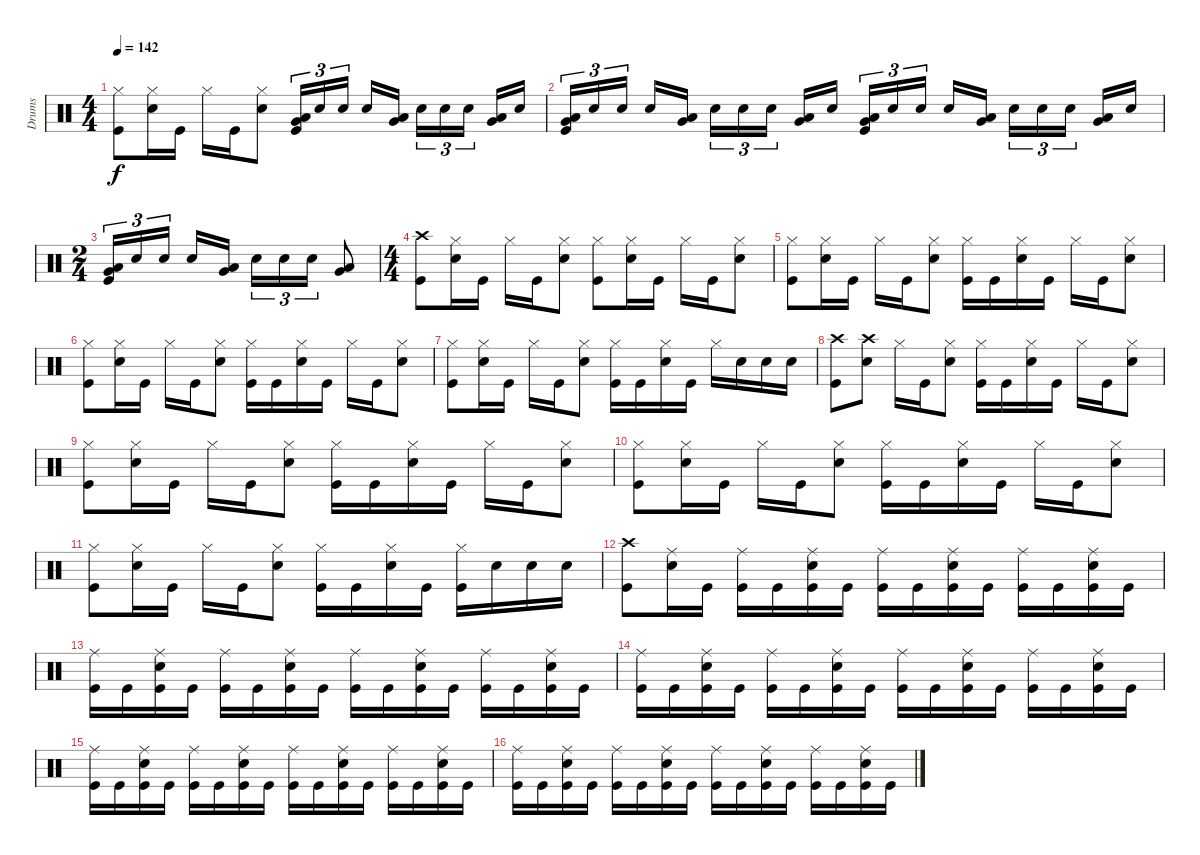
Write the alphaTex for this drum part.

\track ("Drums" "Drums") {instrument percussion}
\staff {score}
\articulation defaults
\ts (4 4)
\tempo 142
\clef neutral
\ks c
("Hi-Hat (closed)" "Kick (hit)").8{dy f} ("Snare (hit) 2" "Hi-Hat (closed)").16 "Kick (hit)".16 "Hi-Hat (closed)".16 "Kick (hit)".16 ("Snare (hit) 2" "Hi-Hat (closed)").8 ("Low Tom (hit)" "Very Low Tom (hit)" "Kick (hit)").16{tu (3 2)} "Snare (hit) 2".16{tu (3 2)} "Snare (hit) 2".16{tu (3 2)} "Snare (hit) 2".16 ("Low Tom (hit)" "Very Low Tom (hit)").16 "Snare (hit) 2".16{tu (3 2)} "Snare (hit) 2".16{tu (3 2)} "Snare (hit) 2".16{tu (3 2)} ("Low Tom (hit)" "Very Low Tom (hit)").16 "Snare (hit) 2".16 |
("Low Tom (hit)" "Very Low Tom (hit)" "Kick (hit)").16{tu (3 2)} "Snare (hit) 2".16{tu (3 2)} "Snare (hit) 2".16{tu (3 2)} "Snare (hit) 2".16 ("Low Tom (hit)" "Very Low Tom (hit)").16 "Snare (hit) 2".16{tu (3 2)} "Snare (hit) 2".16{tu (3 2)} "Snare (hit) 2".16{tu (3 2)} ("Low Tom (hit)" "Very Low Tom (hit)").16 "Snare (hit) 2".16 ("Low Tom (hit)" "Very Low Tom (hit)" "Kick (hit)").16{tu (3 2)} "Snare (hit) 2".16{tu (3 2)} "Snare (hit) 2".16{tu (3 2)} "Snare (hit) 2".16 ("Low Tom (hit)" "Very Low Tom (hit)").16 "Snare (hit) 2".16{tu (3 2)} "Snare (hit) 2".16{tu (3 2)} "Snare (hit) 2".16{tu (3 2)} ("Low Tom (hit)" "Very Low Tom (hit)").16 "Snare (hit) 2".16 |
\ts (2 4)
("Low Tom (hit)" "Very Low Tom (hit)" "Kick (hit)").16{tu (3 2)} "Snare (hit) 2".16{tu (3 2)} "Snare (hit) 2".16{tu (3 2)} "Snare (hit) 2".16 ("Low Tom (hit)" "Very Low Tom (hit)").16 "Snare (hit) 2".16{tu (3 2)} "Snare (hit) 2".16{tu (3 2)} "Snare (hit) 2".16{tu (3 2)} ("Low Tom (hit)" "Very Low Tom (hit)").8 |
\ts (4 4)
("Crash high (hit)" "Kick (hit)").8 ("Snare (hit) 2" "Hi-Hat (closed)").16 "Kick (hit)".16 "Hi-Hat (closed)".16 "Kick (hit)".16 ("Hi-Hat (closed)" "Snare (hit) 2").8 ("Hi-Hat (closed)" "Kick (hit)").8 ("Snare (hit) 2" "Hi-Hat (closed)").16 "Kick (hit)".16 "Hi-Hat (closed)".16 "Kick (hit)".16 ("Hi-Hat (closed)" "Snare (hit) 2").8 |
("Hi-Hat (closed)" "Kick (hit)").8 ("Snare (hit) 2" "Hi-Hat (closed)").16 "Kick (hit)".16 "Hi-Hat (closed)".16 "Kick (hit)".16 ("Snare (hit) 2" "Hi-Hat (closed)").8 ("Hi-Hat (closed)" "Kick (hit)").16 "Kick (hit)".16 ("Snare (hit) 2" "Hi-Hat (closed)").16 "Kick (hit)".16 "Hi-Hat (closed)".16 "Kick (hit)".16 ("Snare (hit) 2" "Hi-Hat (closed)").8 |
("Hi-Hat (closed)" "Kick (hit)").8 ("Snare (hit) 2" "Hi-Hat (closed)").16 "Kick (hit)".16 "Hi-Hat (closed)".16 "Kick (hit)".16 ("Hi-Hat (closed)" "Snare (hit) 2").8 ("Hi-Hat (closed)" "Kick (hit)").16 "Kick (hit)".16 ("Snare (hit) 2" "Hi-Hat (closed)").16 "Kick (hit)".16 "Hi-Hat (closed)".16 "Kick (hit)".16 ("Hi-Hat (closed)" "Snare (hit) 2").8 |
("Hi-Hat (closed)" "Kick (hit)").8 ("Snare (hit) 2" "Hi-Hat (closed)").16 "Kick (hit)".16 "Hi-Hat (closed)".16 "Kick (hit)".16 ("Hi-Hat (closed)" "Snare (hit) 2").8 ("Hi-Hat (closed)" "Kick (hit)").16 "Kick (hit)".16 ("Snare (hit) 2" "Hi-Hat (closed)").16 "Kick (hit)".16 "Hi-Hat (closed)".16 "Snare (hit) 2".16 "Snare (hit) 2".16 "Snare (hit) 2".16 |
("Crash high (hit)" "Kick (hit)").8 ("Crash high (hit)" "Snare (hit) 2").8 "Hi-Hat (closed)".16 "Kick (hit)".16 ("Hi-Hat (closed)" "Snare (hit) 2").8 ("Hi-Hat (closed)" "Kick (hit)").16 "Kick (hit)".16 ("Snare (hit) 2" "Hi-Hat (closed)").16 "Kick (hit)".16 "Hi-Hat (closed)".16 "Kick (hit)".16 ("Hi-Hat (closed)" "Snare (hit) 2").8 |
("Hi-Hat (closed)" "Kick (hit)").8 ("Snare (hit) 2" "Hi-Hat (closed)").16 "Kick (hit)".16 "Hi-Hat (closed)".16 "Kick (hit)".16 ("Hi-Hat (closed)" "Snare (hit) 2").8 ("Hi-Hat (closed)" "Kick (hit)").16 "Kick (hit)".16 ("Snare (hit) 2" "Hi-Hat (closed)").16 "Kick (hit)".16 "Hi-Hat (closed)".16 "Kick (hit)".16 ("Hi-Hat (closed)" "Snare (hit) 2").8 |
("Hi-Hat (closed)" "Kick (hit)").8 ("Snare (hit) 2" "Hi-Hat (closed)").16 "Kick (hit)".16 "Hi-Hat (closed)".16 "Kick (hit)".16 ("Hi-Hat (closed)" "Snare (hit) 2").8 ("Hi-Hat (closed)" "Kick (hit)").16 "Kick (hit)".16 ("Snare (hit) 2" "Hi-Hat (closed)").16 "Kick (hit)".16 "Hi-Hat (closed)".16 "Kick (hit)".16 ("Hi-Hat (closed)" "Snare (hit) 2").8 |
("Hi-Hat (closed)" "Kick (hit)").8 ("Snare (hit) 2" "Hi-Hat (closed)").16 "Kick (hit)".16 "Hi-Hat (closed)".16 "Kick (hit)".16 ("Hi-Hat (closed)" "Snare (hit) 2").8 ("Hi-Hat (closed)" "Kick (hit)").16 "Kick (hit)".16 ("Snare (hit) 2" "Hi-Hat (closed)").16 "Kick (hit)".16 ("Kick (hit)" "Hi-Hat (closed)").16 "Snare (hit) 2".16 "Snare (hit) 2".16 "Snare (hit) 2".16 |
("Crash high (hit)" "Kick (hit)").8 ("Ride (middle)" "Snare (hit) 2").16 "Kick (hit)".16 ("Ride (middle)" "Kick (hit)").16 "Kick (hit)".16 ("Ride (middle)" "Snare (hit) 2" "Kick (hit)").16 "Kick (hit)".16 ("Ride (middle)" "Kick (hit)").16 "Kick (hit)".16 ("Snare (hit) 2" "Ride (middle)" "Kick (hit)").16 "Kick (hit)".16 ("Ride (middle)" "Kick (hit)").16 "Kick (hit)".16 ("Snare (hit) 2" "Ride (middle)" "Kick (hit)").16 "Kick (hit)".16 |
("Ride (middle)" "Kick (hit)").16 "Kick (hit)".16 ("Snare (hit) 2" "Ride (middle)" "Kick (hit)").16 "Kick (hit)".16 ("Ride (middle)" "Kick (hit)").16 "Kick (hit)".16 ("Snare (hit) 2" "Ride (middle)" "Kick (hit)").16 "Kick (hit)".16 ("Ride (middle)" "Kick (hit)").16 "Kick (hit)".16 ("Snare (hit) 2" "Ride (middle)" "Kick (hit)").16 "Kick (hit)".16 ("Ride (middle)" "Kick (hit)").16 "Kick (hit)".16 ("Snare (hit) 2" "Ride (middle)" "Kick (hit)").16 "Kick (hit)".16 |
("Ride (middle)" "Kick (hit)").16 "Kick (hit)".16 ("Snare (hit) 2" "Ride (middle)" "Kick (hit)").16 "Kick (hit)".16 ("Ride (middle)" "Kick (hit)").16 "Kick (hit)".16 ("Snare (hit) 2" "Ride (middle)" "Kick (hit)").16 "Kick (hit)".16 ("Ride (middle)" "Kick (hit)").16 "Kick (hit)".16 ("Snare (hit) 2" "Ride (middle)" "Kick (hit)").16 "Kick (hit)".16 ("Ride (middle)" "Kick (hit)").16 "Kick (hit)".16 ("Snare (hit) 2" "Ride (middle)" "Kick (hit)").16 "Kick (hit)".16 |
("Ride (middle)" "Kick (hit)").16 "Kick (hit)".16 ("Snare (hit) 2" "Ride (middle)" "Kick (hit)").16 "Kick (hit)".16 ("Ride (middle)" "Kick (hit)").16 "Kick (hit)".16 ("Snare (hit) 2" "Ride (middle)" "Kick (hit)").16 "Kick (hit)".16 ("Ride (middle)" "Kick (hit)").16 "Kick (hit)".16 ("Snare (hit) 2" "Ride (middle)" "Kick (hit)").16 "Kick (hit)".16 ("Ride (middle)" "Kick (hit)").16 "Kick (hit)".16 ("Snare (hit) 2" "Ride (middle)" "Kick (hit)").16 "Kick (hit)".16 |
("Ride (middle)" "Kick (hit)").16 "Kick (hit)".16 ("Snare (hit) 2" "Ride (middle)" "Kick (hit)").16 "Kick (hit)".16 ("Ride (middle)" "Kick (hit)").16 "Kick (hit)".16 ("Snare (hit) 2" "Ride (middle)" "Kick (hit)").16 "Kick (hit)".16 ("Ride (middle)" "Kick (hit)").16 "Kick (hit)".16 ("Snare (hit) 2" "Ride (middle)" "Kick (hit)").16 "Kick (hit)".16 ("Ride (middle)" "Kick (hit)").16 "Kick (hit)".16 ("Snare (hit) 2" "Ride (middle)" "Kick (hit)").16 "Kick (hit)".16
